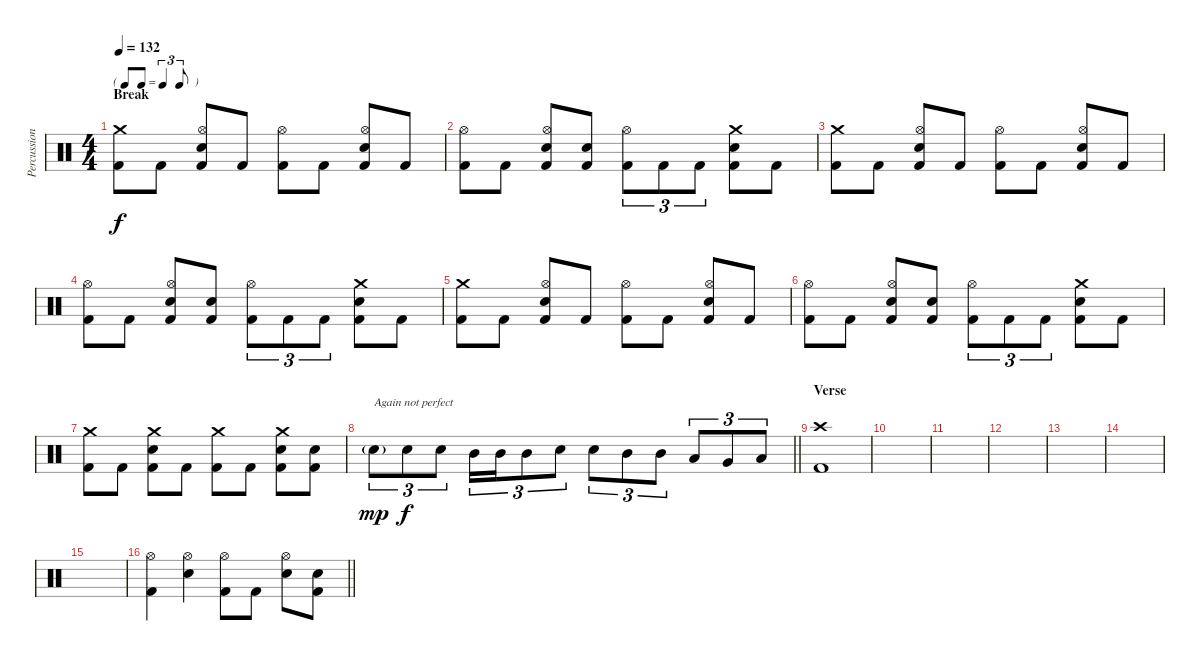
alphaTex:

\track ("Percussion" "Percussion") {instrument percussion}
\staff {score}
\articulation defaults
\ts (4 4)
\tf triplet8th
\section ("" "Break")
\tempo 132
\clef neutral
\ks c
("Crash medium (hit)" "Kick (hit) 2").8{dy f} "Kick (hit) 2".8 ("Hi-Hat (open)" "Electric Snare (hit)" "Kick (hit) 2").8 "Kick (hit) 2".8 ("Hi-Hat (open)" "Kick (hit) 2").8 "Kick (hit) 2".8 ("Hi-Hat (open)" "Electric Snare (hit)" "Kick (hit) 2").8 "Kick (hit) 2".8 |
("Hi-Hat (open)" "Kick (hit) 2").8 "Kick (hit) 2".8 ("Hi-Hat (open)" "Electric Snare (hit)" "Kick (hit) 2").8 ("Electric Snare (hit)" "Kick (hit) 2").8 ("Hi-Hat (open)" "Kick (hit) 2").8{tu (3 2)} "Kick (hit) 2".8{tu (3 2)} "Kick (hit) 2".8{tu (3 2)} ("Crash medium (hit)" "Electric Snare (hit)" "Kick (hit) 2").8 "Kick (hit) 2".8 |
("Crash medium (hit)" "Kick (hit) 2").8 "Kick (hit) 2".8 ("Hi-Hat (open)" "Electric Snare (hit)" "Kick (hit) 2").8 "Kick (hit) 2".8 ("Hi-Hat (open)" "Kick (hit) 2").8 "Kick (hit) 2".8 ("Hi-Hat (open)" "Electric Snare (hit)" "Kick (hit) 2").8 "Kick (hit) 2".8 |
("Hi-Hat (open)" "Kick (hit) 2").8 "Kick (hit) 2".8 ("Hi-Hat (open)" "Electric Snare (hit)" "Kick (hit) 2").8 ("Electric Snare (hit)" "Kick (hit) 2").8 ("Hi-Hat (open)" "Kick (hit) 2").8{tu (3 2)} "Kick (hit) 2".8{tu (3 2)} "Kick (hit) 2".8{tu (3 2)} ("Crash medium (hit)" "Electric Snare (hit)" "Kick (hit) 2").8 "Kick (hit) 2".8 |
("Crash medium (hit)" "Kick (hit) 2").8 "Kick (hit) 2".8 ("Hi-Hat (open)" "Electric Snare (hit)" "Kick (hit) 2").8 "Kick (hit) 2".8 ("Hi-Hat (open)" "Kick (hit) 2").8 "Kick (hit) 2".8 ("Hi-Hat (open)" "Electric Snare (hit)" "Kick (hit) 2").8 "Kick (hit) 2".8 |
("Hi-Hat (open)" "Kick (hit) 2").8 "Kick (hit) 2".8 ("Hi-Hat (open)" "Electric Snare (hit)" "Kick (hit) 2").8 ("Electric Snare (hit)" "Kick (hit) 2").8 ("Hi-Hat (open)" "Kick (hit) 2").8{tu (3 2)} "Kick (hit) 2".8{tu (3 2)} "Kick (hit) 2".8{tu (3 2)} ("Crash medium (hit)" "Electric Snare (hit)" "Kick (hit) 2").8 "Kick (hit) 2".8 |
("Crash medium (hit)" "Kick (hit) 2").8 "Kick (hit) 2".8 ("Crash medium (hit)" "Electric Snare (hit)" "Kick (hit) 2").8 "Kick (hit) 2".8 ("Crash medium (hit)" "Kick (hit) 2").8 "Kick (hit) 2".8 ("Crash medium (hit)" "Electric Snare (hit)" "Kick (hit) 2").8 ("Electric Snare (hit)" "Kick (hit) 2").8 |
\barLineRight lightlight "Electric Snare (hit)"{g}.8{tu (3 2) txt "Again not perfect" dy mp} "Electric Snare (hit)".8{tu (3 2) dy f} "Electric Snare (hit)".8{tu (3 2)} "Mid Tom (hit)".16{tu (3 2)} "Mid Tom (hit)".16{tu (3 2)} "Mid Tom (hit)".8{tu (3 2)} "Electric Snare (hit)".8{tu (3 2)} "Electric Snare (hit)".8{tu (3 2)} "Mid Tom (hit)".8{tu (3 2)} "Mid Tom (hit)".8{tu (3 2)} "Low Tom (hit)".8{tu (3 2)} "Very Low Tom (hit)".8{tu (3 2)} "Low Floor Tom (hit)".8{tu (3 2)}
|
\section ("" "Verse")
("Crash high (hit)" "Kick (hit) 2").1 |
|
|
|
|
|
|
\barLineRight lightlight
("Hi-Hat (open)" "Kick (hit) 2").4 ("Hi-Hat (open)" "Electric Snare (hit)").4 ("Hi-Hat (open)" "Kick (hit) 2").8 "Kick (hit) 2".8 ("Hi-Hat (open)" "Electric Snare (hit)").8 ("Electric Snare (hit)" "Kick (hit) 2").8
